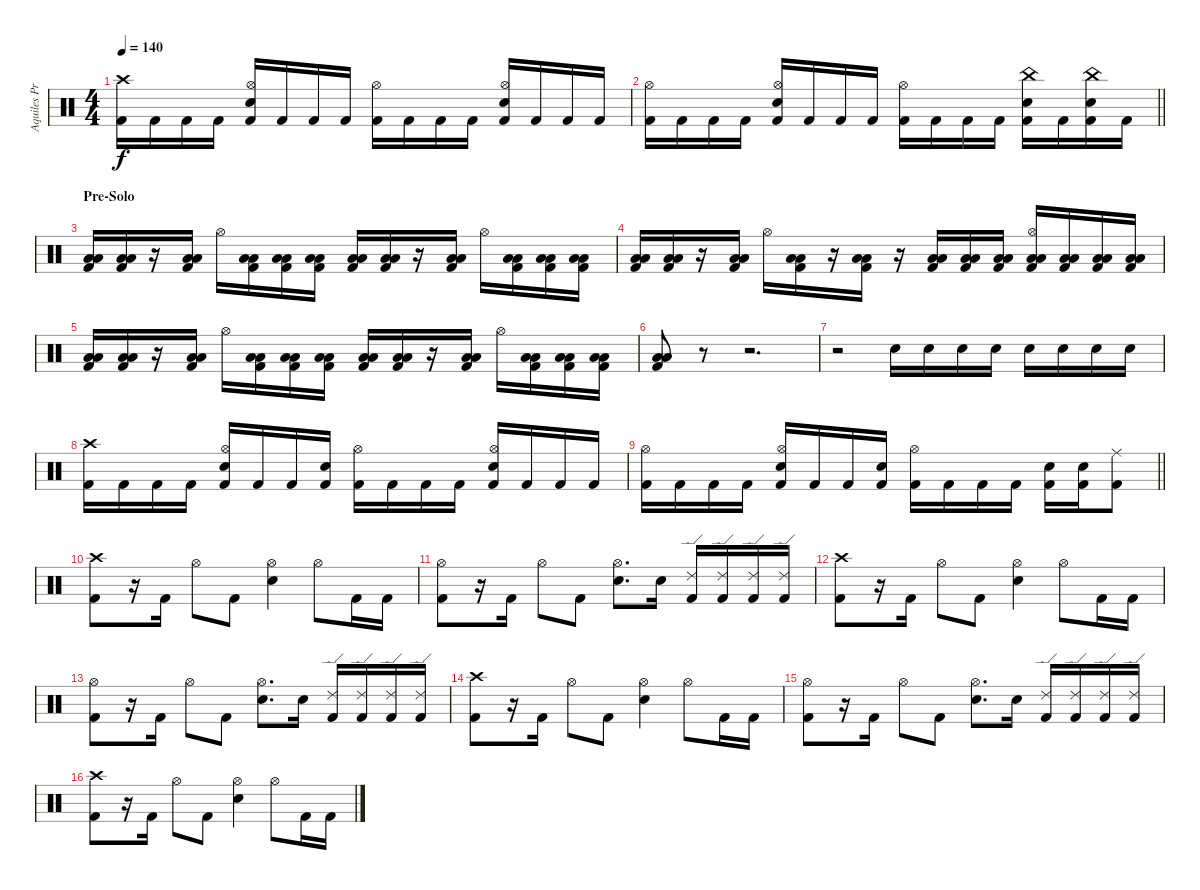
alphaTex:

\track ("Aquiles Priester" "Aquiles Pr") {instrument percussion}
\staff {score}
\articulation defaults
\ts (4 4)
\tempo 140
\clef neutral
\ks c
("Crash high (hit)" "Kick (hit) 2").16{dy f} "Kick (hit) 2".16 "Kick (hit) 2".16 "Kick (hit) 2".16 ("Hi-Hat (open)" "Electric Snare (hit)" "Kick (hit) 2").16 "Kick (hit) 2".16 "Kick (hit) 2".16 "Kick (hit) 2".16 ("Hi-Hat (open)" "Kick (hit) 2").16 "Kick (hit) 2".16 "Kick (hit) 2".16 "Kick (hit) 2".16 ("Hi-Hat (open)" "Electric Snare (hit)" "Kick (hit) 2").16 "Kick (hit) 2".16 "Kick (hit) 2".16 "Kick (hit) 2".16 |
\barLineRight lightlight
("Hi-Hat (open)" "Kick (hit) 2").16 "Kick (hit) 2".16 "Kick (hit) 2".16 "Kick (hit) 2".16 ("Hi-Hat (open)" "Electric Snare (hit)" "Kick (hit) 2").16 "Kick (hit) 2".16 "Kick (hit) 2".16 "Kick (hit) 2".16 ("Hi-Hat (open)" "Kick (hit) 2").16 "Kick (hit) 2".16 "Kick (hit) 2".16 "Kick (hit) 2".16 ("China (hit)" "Electric Snare (hit)" "Kick (hit) 2").16 "Kick (hit) 2".16 ("China (hit)" "Electric Snare (hit)" "Kick (hit) 2").16 "Kick (hit) 2".16 |
\section ("" "Pre-Solo")
("Low Floor Tom (hit)" "Low Tom (hit)" "Kick (hit) 2").16 ("Low Floor Tom (hit)" "Low Tom (hit)" "Kick (hit) 2").16 r.16 ("Low Floor Tom (hit)" "Low Tom (hit)" "Kick (hit) 2").16 "Hi-Hat (open)".16 ("Low Floor Tom (hit)" "Low Tom (hit)" "Kick (hit) 2").16 ("Low Floor Tom (hit)" "Low Tom (hit)" "Kick (hit) 2").16 ("Low Floor Tom (hit)" "Low Tom (hit)" "Kick (hit) 2").16 ("Low Floor Tom (hit)" "Low Tom (hit)" "Kick (hit) 2").16 ("Low Floor Tom (hit)" "Low Tom (hit)" "Kick (hit) 2").16 r.16 ("Low Floor Tom (hit)" "Low Tom (hit)" "Kick (hit) 2").16 "Hi-Hat (open)".16 ("Low Floor Tom (hit)" "Low Tom (hit)" "Kick (hit) 2").16 ("Low Floor Tom (hit)" "Low Tom (hit)" "Kick (hit) 2").16 ("Low Floor Tom (hit)" "Low Tom (hit)" "Kick (hit) 2").16 |
("Low Floor Tom (hit)" "Low Tom (hit)" "Kick (hit) 2").16 ("Low Floor Tom (hit)" "Low Tom (hit)" "Kick (hit) 2").16 r.16 ("Low Floor Tom (hit)" "Low Tom (hit)" "Kick (hit) 2").16 "Hi-Hat (open)".16 ("Low Floor Tom (hit)" "Low Tom (hit)" "Kick (hit) 2").16 r.16 ("Low Floor Tom (hit)" "Low Tom (hit)" "Kick (hit) 2").16 r.16 ("Low Floor Tom (hit)" "Low Tom (hit)" "Kick (hit) 2").16 ("Low Floor Tom (hit)" "Low Tom (hit)" "Kick (hit) 2").16 ("Low Floor Tom (hit)" "Low Tom (hit)" "Kick (hit) 2").16 ("Hi-Hat (open)" "Low Floor Tom (hit)" "Low Tom (hit)" "Kick (hit) 2").16 ("Low Floor Tom (hit)" "Low Tom (hit)" "Kick (hit) 2").16 ("Low Floor Tom (hit)" "Low Tom (hit)" "Kick (hit) 2").16 ("Low Floor Tom (hit)" "Low Tom (hit)" "Kick (hit) 2").16 |
("Low Floor Tom (hit)" "Low Tom (hit)" "Kick (hit) 2").16 ("Low Floor Tom (hit)" "Low Tom (hit)" "Kick (hit) 2").16 r.16 ("Low Floor Tom (hit)" "Low Tom (hit)" "Kick (hit) 2").16 "Hi-Hat (open)".16 ("Low Floor Tom (hit)" "Low Tom (hit)" "Kick (hit) 2").16 ("Low Floor Tom (hit)" "Low Tom (hit)" "Kick (hit) 2").16 ("Low Floor Tom (hit)" "Low Tom (hit)" "Kick (hit) 2").16 ("Low Floor Tom (hit)" "Low Tom (hit)" "Kick (hit) 2").16 ("Low Floor Tom (hit)" "Low Tom (hit)" "Kick (hit) 2").16 r.16 ("Low Floor Tom (hit)" "Low Tom (hit)" "Kick (hit) 2").16 "Hi-Hat (open)".16 ("Low Floor Tom (hit)" "Low Tom (hit)" "Kick (hit) 2").16 ("Low Floor Tom (hit)" "Low Tom (hit)" "Kick (hit) 2").16 ("Low Floor Tom (hit)" "Low Tom (hit)" "Kick (hit) 2").16 |
("Low Floor Tom (hit)" "Low Tom (hit)" "Kick (hit) 2").8 r.8 r.2{d} |
r.2 "Electric Snare (hit)".16 "Electric Snare (hit)".16 "Electric Snare (hit)".16 "Electric Snare (hit)".16 "Electric Snare (hit)".16 "Electric Snare (hit)".16 "Electric Snare (hit)".16 "Electric Snare (hit)".16 |
("Crash high (hit)" "Kick (hit) 2").16 "Kick (hit) 2".16 "Kick (hit) 2".16 "Kick (hit) 2".16 ("Hi-Hat (open)" "Electric Snare (hit)" "Kick (hit) 2").16 "Kick (hit) 2".16 "Kick (hit) 2".16 ("Electric Snare (hit)" "Kick (hit) 2").16 ("Hi-Hat (open)" "Kick (hit) 2").16 "Kick (hit) 2".16 "Kick (hit) 2".16 "Kick (hit) 2".16 ("Hi-Hat (open)" "Electric Snare (hit)" "Kick (hit) 2").16 "Kick (hit) 2".16 "Kick (hit) 2".16 "Kick (hit) 2".16 |
\barLineRight lightlight
("Hi-Hat (open)" "Kick (hit) 2").16 "Kick (hit) 2".16 "Kick (hit) 2".16 "Kick (hit) 2".16 ("Hi-Hat (open)" "Electric Snare (hit)" "Kick (hit) 2").16 "Kick (hit) 2".16 "Kick (hit) 2".16 ("Electric Snare (hit)" "Kick (hit) 2").16 ("Hi-Hat (open)" "Kick (hit) 2").16 "Kick (hit) 2".16 "Kick (hit) 2".16 "Kick (hit) 2".16 ("Electric Snare (hit)" "Kick (hit) 2").16 ("Electric Snare (hit)" "Kick (hit) 2").16 ("Ride (middle)" "Kick (hit) 2").8 |
("Crash high (hit)" "Kick (hit) 2").8 r.16 "Kick (hit) 2".16 "Hi-Hat (open)".8 "Kick (hit) 2".8 ("Hi-Hat (open)" "Electric Snare (hit)").4 "Hi-Hat (open)".8 "Kick (hit) 2".16 "Kick (hit) 2".16 |
("Hi-Hat (open)" "Kick (hit) 2").8 r.16 "Kick (hit) 2".16 "Hi-Hat (open)".8 "Kick (hit) 2".8 ("Hi-Hat (open)" "Electric Snare (hit)").8{d} "Electric Snare (hit)".16 ("Ride (edge) 2" "Kick (hit) 2").16 ("Ride (edge) 2" "Kick (hit) 2").16 ("Ride (edge) 2" "Kick (hit) 2").16 ("Ride (edge) 2" "Kick (hit) 2").16 |
("Crash high (hit)" "Kick (hit) 2").8 r.16 "Kick (hit) 2".16 "Hi-Hat (open)".8 "Kick (hit) 2".8 ("Hi-Hat (open)" "Electric Snare (hit)").4 "Hi-Hat (open)".8 "Kick (hit) 2".16 "Kick (hit) 2".16 |
("Hi-Hat (open)" "Kick (hit) 2").8 r.16 "Kick (hit) 2".16 "Hi-Hat (open)".8 "Kick (hit) 2".8 ("Hi-Hat (open)" "Electric Snare (hit)").8{d} "Electric Snare (hit)".16 ("Ride (edge) 2" "Kick (hit) 2").16 ("Ride (edge) 2" "Kick (hit) 2").16 ("Ride (edge) 2" "Kick (hit) 2").16 ("Ride (edge) 2" "Kick (hit) 2").16 |
("Crash high (hit)" "Kick (hit) 2").8 r.16 "Kick (hit) 2".16 "Hi-Hat (open)".8 "Kick (hit) 2".8 ("Hi-Hat (open)" "Electric Snare (hit)").4 "Hi-Hat (open)".8 "Kick (hit) 2".16 "Kick (hit) 2".16 |
("Hi-Hat (open)" "Kick (hit) 2").8 r.16 "Kick (hit) 2".16 "Hi-Hat (open)".8 "Kick (hit) 2".8 ("Hi-Hat (open)" "Electric Snare (hit)").8{d} "Electric Snare (hit)".16 ("Ride (edge) 2" "Kick (hit) 2").16 ("Ride (edge) 2" "Kick (hit) 2").16 ("Ride (edge) 2" "Kick (hit) 2").16 ("Ride (edge) 2" "Kick (hit) 2").16 |
("Crash high (hit)" "Kick (hit) 2").8 r.16 "Kick (hit) 2".16 "Hi-Hat (open)".8 "Kick (hit) 2".8 ("Hi-Hat (open)" "Electric Snare (hit)").4 "Hi-Hat (open)".8 "Kick (hit) 2".16 "Kick (hit) 2".16
